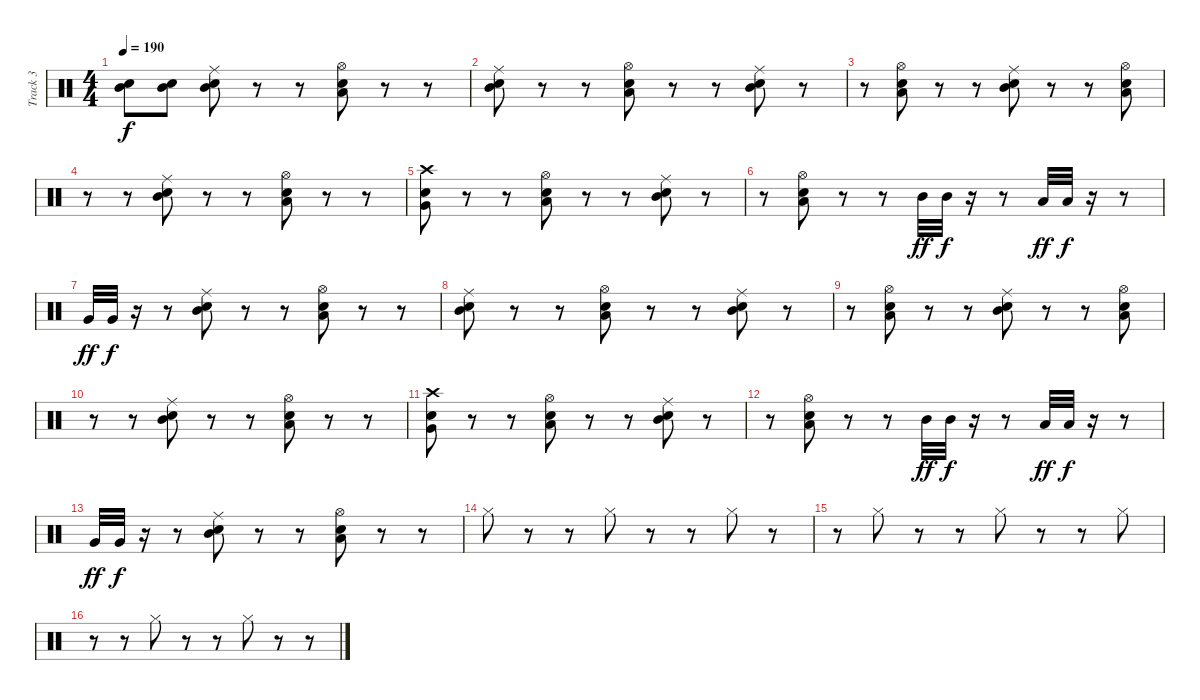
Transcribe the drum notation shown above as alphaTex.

\track ("Track 3" "Track 3") {instrument percussion}
\staff {score}
\articulation defaults
\ts (4 4)
\tempo 190
\clef neutral
\ks c
("Electric Snare (hit)" "Mid Tom (hit)").8{dy f} ("Electric Snare (hit)" "Mid Tom (hit)").8 ("Mid Tom (hit)" "Snare (hit) 2" "Ride (middle)").8 r.8 r.8 ("Low Tom (hit)" "Snare (hit) 2" "Hi-Hat (open)").8 r.8 r.8 |
("Mid Tom (hit)" "Snare (hit) 2" "Ride (middle)").8 r.8 r.8 ("Low Tom (hit)" "Snare (hit) 2" "Hi-Hat (open)").8 r.8 r.8 ("Mid Tom (hit)" "Snare (hit) 2" "Ride (middle)").8 r.8 |
r.8 ("Low Tom (hit)" "Snare (hit) 2" "Hi-Hat (open)").8 r.8 r.8 ("Mid Tom (hit)" "Snare (hit) 2" "Ride (middle)").8 r.8 r.8 ("Low Tom (hit)" "Snare (hit) 2" "Hi-Hat (open)").8 |
r.8 r.8 ("Mid Tom (hit)" "Snare (hit) 2" "Ride (middle)").8 r.8 r.8 ("Low Tom (hit)" "Snare (hit) 2" "Hi-Hat (open)").8 r.8 r.8 |
("Very Low Tom (hit)" "Snare (hit) 2" "Crash high (hit)").8 r.8 r.8 ("Low Tom (hit)" "Snare (hit) 2" "Hi-Hat (open)").8 r.8 r.8 ("Mid Tom (hit)" "Snare (hit) 2" "Ride (middle)").8 r.8 |
r.8 ("Low Tom (hit)" "Snare (hit) 2" "Hi-Hat (open)").8 r.8 r.8 "Mid Tom (hit)".32{dy ff} "Mid Tom (hit)".32{dy f} r.16 r.8 "Low Tom (hit)".32{dy ff} "Low Tom (hit)".32{dy f} r.16 r.8 |
"Very Low Tom (hit)".32{dy ff} "Very Low Tom (hit)".32{dy f} r.16 r.8 ("Mid Tom (hit)" "Snare (hit) 2" "Ride (middle)").8 r.8 r.8 ("Low Tom (hit)" "Snare (hit) 2" "Hi-Hat (open)").8 r.8 r.8 |
("Mid Tom (hit)" "Snare (hit) 2" "Ride (middle)").8 r.8 r.8 ("Low Tom (hit)" "Snare (hit) 2" "Hi-Hat (open)").8 r.8 r.8 ("Mid Tom (hit)" "Snare (hit) 2" "Ride (middle)").8 r.8 |
r.8 ("Low Tom (hit)" "Snare (hit) 2" "Hi-Hat (open)").8 r.8 r.8 ("Mid Tom (hit)" "Snare (hit) 2" "Ride (middle)").8 r.8 r.8 ("Low Tom (hit)" "Snare (hit) 2" "Hi-Hat (open)").8 |
r.8 r.8 ("Mid Tom (hit)" "Snare (hit) 2" "Ride (middle)").8 r.8 r.8 ("Low Tom (hit)" "Snare (hit) 2" "Hi-Hat (open)").8 r.8 r.8 |
("Very Low Tom (hit)" "Snare (hit) 2" "Crash high (hit)").8 r.8 r.8 ("Low Tom (hit)" "Snare (hit) 2" "Hi-Hat (open)").8 r.8 r.8 ("Mid Tom (hit)" "Snare (hit) 2" "Ride (middle)").8 r.8 |
r.8 ("Low Tom (hit)" "Snare (hit) 2" "Hi-Hat (open)").8 r.8 r.8 "Mid Tom (hit)".32{dy ff} "Mid Tom (hit)".32{dy f} r.16 r.8 "Low Tom (hit)".32{dy ff} "Low Tom (hit)".32{dy f} r.16 r.8 |
"Very Low Tom (hit)".32{dy ff} "Very Low Tom (hit)".32{dy f} r.16 r.8 ("Mid Tom (hit)" "Snare (hit) 2" "Ride (middle)").8 r.8 r.8 ("Low Tom (hit)" "Snare (hit) 2" "Hi-Hat (open)").8 r.8 r.8 |
"Hi-Hat (closed)".8 r.8 r.8 "Hi-Hat (closed)".8 r.8 r.8 "Hi-Hat (closed)".8 r.8 |
r.8 "Hi-Hat (closed)".8 r.8 r.8 "Hi-Hat (closed)".8 r.8 r.8 "Hi-Hat (closed)".8 |
r.8 r.8 "Hi-Hat (closed)".8 r.8 r.8 "Hi-Hat (closed)".8 r.8 r.8
